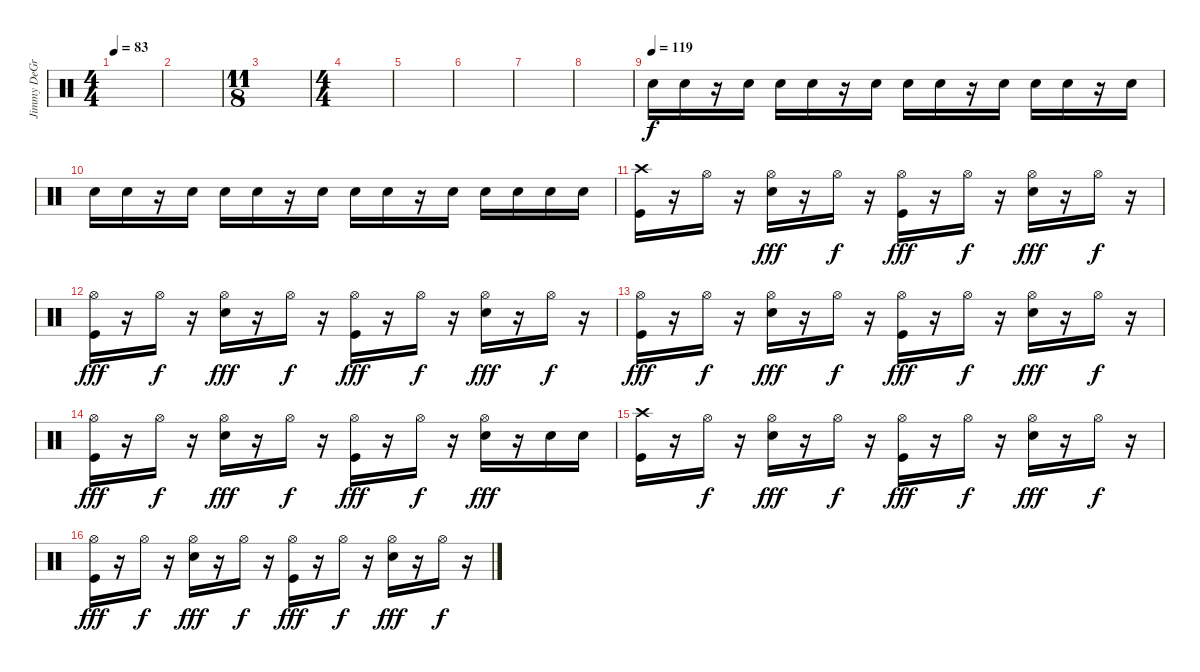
\track ("Jimmy DeGrasso" "Jimmy DeGr") {instrument percussion}
\staff {score}
\articulation defaults
\ts (4 4)
\tempo 83
\clef neutral
\ks c
|
|
\ts (11 8)
|
\ts (4 4)
|
|
|
|
|
\tempo (119)
"Electric Snare (hit)".16 "Electric Snare (hit)".16 r.16 "Electric Snare (hit)".16 "Electric Snare (hit)".16 "Electric Snare (hit)".16 r.16 "Electric Snare (hit)".16 "Electric Snare (hit)".16 "Electric Snare (hit)".16 r.16 "Electric Snare (hit)".16 "Electric Snare (hit)".16 "Electric Snare (hit)".16 r.16 "Electric Snare (hit)".16 |
"Electric Snare (hit)".16 "Electric Snare (hit)".16 r.16 "Electric Snare (hit)".16 "Electric Snare (hit)".16 "Electric Snare (hit)".16 r.16 "Electric Snare (hit)".16 "Electric Snare (hit)".16 "Electric Snare (hit)".16 r.16 "Electric Snare (hit)".16 "Electric Snare (hit)".16 "Electric Snare (hit)".16 "Electric Snare (hit)".16 "Electric Snare (hit)".16 |
("Kick (hit)" "Crash high (hit)").16 r.16 "Hi-Hat (open)".16{dy f} r.16 ("Electric Snare (hit)" "Hi-Hat (open)").16{dy fff} r.16 "Hi-Hat (open)".16{dy f} r.16 ("Kick (hit)" "Hi-Hat (open)").16{dy fff} r.16 "Hi-Hat (open)".16{dy f} r.16 ("Electric Snare (hit)" "Hi-Hat (open)").16{dy fff} r.16 "Hi-Hat (open)".16{dy f} r.16 |
("Kick (hit)" "Hi-Hat (open)").16{dy fff} r.16 "Hi-Hat (open)".16{dy f} r.16 ("Electric Snare (hit)" "Hi-Hat (open)").16{dy fff} r.16 "Hi-Hat (open)".16{dy f} r.16 ("Kick (hit)" "Hi-Hat (open)").16{dy fff} r.16 "Hi-Hat (open)".16{dy f} r.16 ("Electric Snare (hit)" "Hi-Hat (open)").16{dy fff} r.16 "Hi-Hat (open)".16{dy f} r.16 |
("Kick (hit)" "Hi-Hat (open)").16{dy fff} r.16 "Hi-Hat (open)".16{dy f} r.16 ("Electric Snare (hit)" "Hi-Hat (open)").16{dy fff} r.16 "Hi-Hat (open)".16{dy f} r.16 ("Kick (hit)" "Hi-Hat (open)").16{dy fff} r.16 "Hi-Hat (open)".16{dy f} r.16 ("Electric Snare (hit)" "Hi-Hat (open)").16{dy fff} r.16 "Hi-Hat (open)".16{dy f} r.16 |
("Kick (hit)" "Hi-Hat (open)").16{dy fff} r.16 "Hi-Hat (open)".16{dy f} r.16 ("Electric Snare (hit)" "Hi-Hat (open)").16{dy fff} r.16 "Hi-Hat (open)".16{dy f} r.16 ("Kick (hit)" "Hi-Hat (open)").16{dy fff} r.16 "Hi-Hat (open)".16{dy f} r.16 ("Electric Snare (hit)" "Hi-Hat (open)").16{dy fff} r.16 "Electric Snare (hit)".16 "Electric Snare (hit)".16 |
("Kick (hit)" "Crash high (hit)").16 r.16 "Hi-Hat (open)".16{dy f} r.16 ("Electric Snare (hit)" "Hi-Hat (open)").16{dy fff} r.16 "Hi-Hat (open)".16{dy f} r.16 ("Kick (hit)" "Hi-Hat (open)").16{dy fff} r.16 "Hi-Hat (open)".16{dy f} r.16 ("Electric Snare (hit)" "Hi-Hat (open)").16{dy fff} r.16 "Hi-Hat (open)".16{dy f} r.16 |
("Kick (hit)" "Hi-Hat (open)").16{dy fff} r.16 "Hi-Hat (open)".16{dy f} r.16 ("Electric Snare (hit)" "Hi-Hat (open)").16{dy fff} r.16 "Hi-Hat (open)".16{dy f} r.16 ("Kick (hit)" "Hi-Hat (open)").16{dy fff} r.16 "Hi-Hat (open)".16{dy f} r.16 ("Electric Snare (hit)" "Hi-Hat (open)").16{dy fff} r.16 "Hi-Hat (open)".16{dy f} r.16
